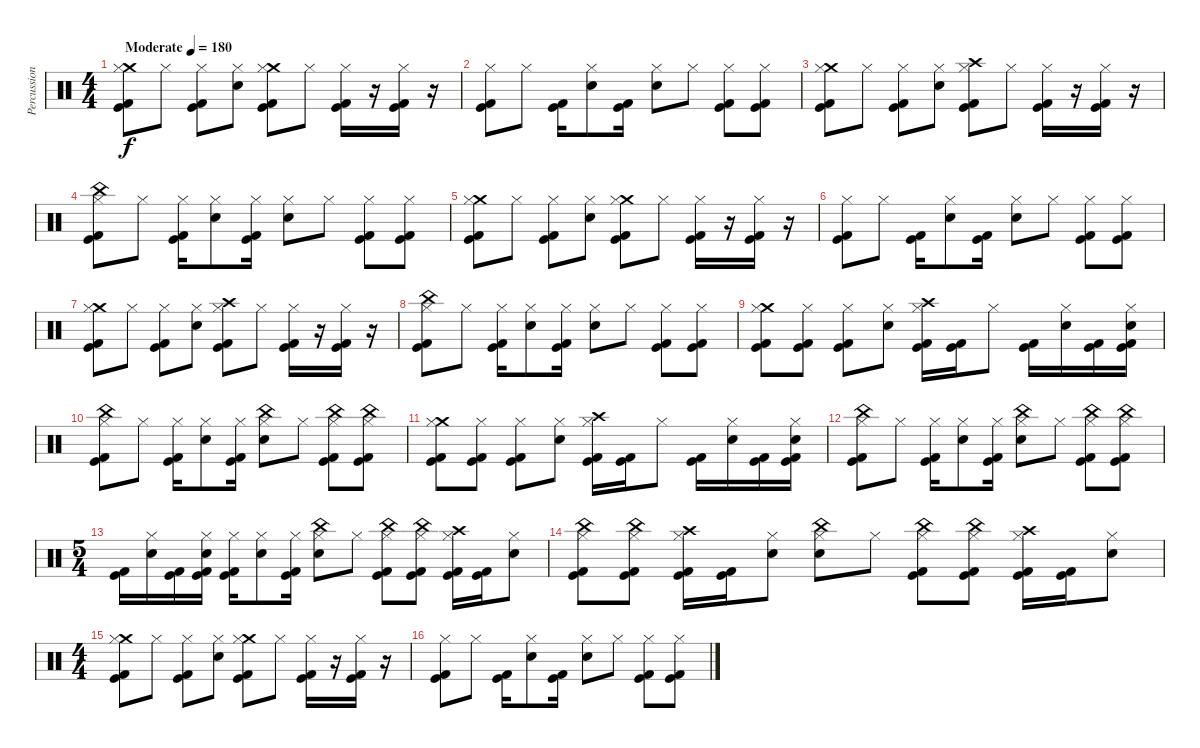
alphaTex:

\track ("Percussion" "Percussion") {instrument percussion}
\staff {score}
\articulation defaults
\ts (4 4)
\tempo (180 "Moderate")
\clef neutral
\ks c
("Crash medium (hit)" "Hi-Hat (closed)" "Kick (hit)" "Kick (hit) 2").8{dy f} "Hi-Hat (closed)".8 ("Hi-Hat (closed)" "Kick (hit)" "Kick (hit) 2").8 ("Hi-Hat (closed)" "Electric Snare (hit)").8 ("Crash medium (hit)" "Hi-Hat (closed)" "Kick (hit)" "Kick (hit) 2").8 "Hi-Hat (closed)".8 ("Hi-Hat (closed)" "Kick (hit)" "Kick (hit) 2").16 r.16 ("Hi-Hat (closed)" "Kick (hit)" "Kick (hit) 2").16 r.16 |
("Hi-Hat (closed)" "Kick (hit)" "Kick (hit) 2").8 "Hi-Hat (closed)".8 ("Kick (hit)" "Kick (hit) 2").16 ("Hi-Hat (closed)" "Electric Snare (hit)").8 ("Kick (hit)" "Kick (hit) 2").16 ("Hi-Hat (closed)" "Electric Snare (hit)").8 "Hi-Hat (closed)".8 ("Hi-Hat (closed)" "Kick (hit)" "Kick (hit) 2").8 ("Hi-Hat (closed)" "Kick (hit)" "Kick (hit) 2").8 |
("Crash medium (hit)" "Hi-Hat (closed)" "Kick (hit)" "Kick (hit) 2").8 "Hi-Hat (closed)".8 ("Hi-Hat (closed)" "Kick (hit)" "Kick (hit) 2").8 ("Hi-Hat (closed)" "Electric Snare (hit)").8 ("Crash high (hit)" "Hi-Hat (closed)" "Kick (hit)" "Kick (hit) 2").8 "Hi-Hat (closed)".8 ("Hi-Hat (closed)" "Kick (hit)" "Kick (hit) 2").16 r.16 ("Hi-Hat (closed)" "Kick (hit)" "Kick (hit) 2").16 r.16 |
("China (hit)" "Hi-Hat (closed)" "Kick (hit)" "Kick (hit) 2").8 "Hi-Hat (closed)".8 ("Hi-Hat (closed)" "Kick (hit)" "Kick (hit) 2").16 ("Hi-Hat (closed)" "Electric Snare (hit)").8 ("Hi-Hat (closed)" "Kick (hit)" "Kick (hit) 2").16 ("Hi-Hat (closed)" "Electric Snare (hit)").8 "Hi-Hat (closed)".8 ("Hi-Hat (closed)" "Kick (hit)" "Kick (hit) 2").8 ("Hi-Hat (closed)" "Kick (hit)" "Kick (hit) 2").8 |
("Crash medium (hit)" "Hi-Hat (closed)" "Kick (hit)" "Kick (hit) 2").8 "Hi-Hat (closed)".8 ("Hi-Hat (closed)" "Kick (hit)" "Kick (hit) 2").8 ("Hi-Hat (closed)" "Electric Snare (hit)").8 ("Crash medium (hit)" "Hi-Hat (closed)" "Kick (hit)" "Kick (hit) 2").8 "Hi-Hat (closed)".8 ("Hi-Hat (closed)" "Kick (hit)" "Kick (hit) 2").16 r.16 ("Hi-Hat (closed)" "Kick (hit)" "Kick (hit) 2").16 r.16 |
("Hi-Hat (closed)" "Kick (hit)" "Kick (hit) 2").8 "Hi-Hat (closed)".8 ("Kick (hit)" "Kick (hit) 2").16 ("Hi-Hat (closed)" "Electric Snare (hit)").8 ("Kick (hit)" "Kick (hit) 2").16 ("Hi-Hat (closed)" "Electric Snare (hit)").8 "Hi-Hat (closed)".8 ("Hi-Hat (closed)" "Kick (hit)" "Kick (hit) 2").8 ("Hi-Hat (closed)" "Kick (hit)" "Kick (hit) 2").8 |
("Crash medium (hit)" "Hi-Hat (closed)" "Kick (hit)" "Kick (hit) 2").8 "Hi-Hat (closed)".8 ("Hi-Hat (closed)" "Kick (hit)" "Kick (hit) 2").8 ("Hi-Hat (closed)" "Electric Snare (hit)").8 ("Crash high (hit)" "Hi-Hat (closed)" "Kick (hit)" "Kick (hit) 2").8 "Hi-Hat (closed)".8 ("Hi-Hat (closed)" "Kick (hit)" "Kick (hit) 2").16 r.16 ("Hi-Hat (closed)" "Kick (hit)" "Kick (hit) 2").16 r.16 |
("China (hit)" "Hi-Hat (closed)" "Kick (hit)" "Kick (hit) 2").8 "Hi-Hat (closed)".8 ("Hi-Hat (closed)" "Kick (hit)" "Kick (hit) 2").16 ("Hi-Hat (closed)" "Electric Snare (hit)").8 ("Hi-Hat (closed)" "Kick (hit)" "Kick (hit) 2").16 ("Hi-Hat (closed)" "Electric Snare (hit)").8 "Hi-Hat (closed)".8 ("Hi-Hat (closed)" "Kick (hit)" "Kick (hit) 2").8 ("Hi-Hat (closed)" "Kick (hit)" "Kick (hit) 2").8 |
("Crash medium (hit)" "Hi-Hat (closed)" "Kick (hit)" "Kick (hit) 2").8 ("Hi-Hat (closed)" "Kick (hit)" "Kick (hit) 2").8 ("Hi-Hat (closed)" "Kick (hit)" "Kick (hit) 2").8 ("Hi-Hat (closed)" "Electric Snare (hit)").8 ("Crash high (hit)" "Hi-Hat (closed)" "Kick (hit)" "Kick (hit) 2").16 ("Kick (hit)" "Kick (hit) 2").16 "Hi-Hat (closed)".8 ("Kick (hit)" "Kick (hit) 2").16 ("Hi-Hat (closed)" "Electric Snare (hit)").16 ("Kick (hit)" "Kick (hit) 2").16 ("Hi-Hat (closed)" "Electric Snare (hit)" "Kick (hit)" "Kick (hit) 2").16 |
("China (hit)" "Hi-Hat (closed)" "Kick (hit)" "Kick (hit) 2").8 "Hi-Hat (closed)".8 ("Hi-Hat (closed)" "Kick (hit)" "Kick (hit) 2").16 ("Hi-Hat (closed)" "Electric Snare (hit)").8 ("Hi-Hat (closed)" "Kick (hit)" "Kick (hit) 2").16 ("China (hit)" "Hi-Hat (closed)" "Electric Snare (hit)").8 "Hi-Hat (closed)".8 ("China (hit)" "Hi-Hat (closed)" "Kick (hit)" "Kick (hit) 2").8 ("China (hit)" "Hi-Hat (closed)" "Kick (hit)" "Kick (hit) 2").8 |
("Crash medium (hit)" "Hi-Hat (closed)" "Kick (hit)" "Kick (hit) 2").8 ("Hi-Hat (closed)" "Kick (hit)" "Kick (hit) 2").8 ("Hi-Hat (closed)" "Kick (hit)" "Kick (hit) 2").8 ("Hi-Hat (closed)" "Electric Snare (hit)").8 ("Crash high (hit)" "Hi-Hat (closed)" "Kick (hit)" "Kick (hit) 2").16 ("Kick (hit)" "Kick (hit) 2").16 "Hi-Hat (closed)".8 ("Kick (hit)" "Kick (hit) 2").16 ("Hi-Hat (closed)" "Electric Snare (hit)").16 ("Kick (hit)" "Kick (hit) 2").16 ("Hi-Hat (closed)" "Electric Snare (hit)" "Kick (hit)" "Kick (hit) 2").16 |
("China (hit)" "Hi-Hat (closed)" "Kick (hit)" "Kick (hit) 2").8 "Hi-Hat (closed)".8 ("Hi-Hat (closed)" "Kick (hit)" "Kick (hit) 2").16 ("Hi-Hat (closed)" "Electric Snare (hit)").8 ("Hi-Hat (closed)" "Kick (hit)" "Kick (hit) 2").16 ("China (hit)" "Hi-Hat (closed)" "Electric Snare (hit)").8 "Hi-Hat (closed)".8 ("China (hit)" "Hi-Hat (closed)" "Kick (hit)" "Kick (hit) 2").8 ("China (hit)" "Hi-Hat (closed)" "Kick (hit)" "Kick (hit) 2").8 |
\ts (5 4)
("Kick (hit)" "Kick (hit) 2").16 ("Hi-Hat (closed)" "Electric Snare (hit)").16 ("Kick (hit)" "Kick (hit) 2").16 ("Hi-Hat (closed)" "Electric Snare (hit)" "Kick (hit)" "Kick (hit) 2").16 ("Hi-Hat (closed)" "Kick (hit)" "Kick (hit) 2").16 ("Hi-Hat (closed)" "Electric Snare (hit)").8 ("Hi-Hat (closed)" "Kick (hit)" "Kick (hit) 2").16 ("China (hit)" "Hi-Hat (closed)" "Electric Snare (hit)").8 "Hi-Hat (closed)".8 ("China (hit)" "Hi-Hat (closed)" "Kick (hit)" "Kick (hit) 2").8 ("China (hit)" "Hi-Hat (closed)" "Kick (hit)" "Kick (hit) 2").8 ("Crash high (hit)" "Hi-Hat (closed)" "Kick (hit)" "Kick (hit) 2").16 ("Kick (hit)" "Kick (hit) 2").16 ("Hi-Hat (closed)" "Electric Snare (hit)").8 |
("China (hit)" "Hi-Hat (closed)" "Kick (hit)" "Kick (hit) 2").8 ("China (hit)" "Hi-Hat (closed)" "Kick (hit)" "Kick (hit) 2").8 ("Crash high (hit)" "Hi-Hat (closed)" "Kick (hit)" "Kick (hit) 2").16 ("Kick (hit)" "Kick (hit) 2").16 ("Hi-Hat (closed)" "Electric Snare (hit)").8 ("China (hit)" "Hi-Hat (closed)" "Electric Snare (hit)").8 "Hi-Hat (closed)".8 ("China (hit)" "Hi-Hat (closed)" "Kick (hit)" "Kick (hit) 2").8 ("China (hit)" "Hi-Hat (closed)" "Kick (hit)" "Kick (hit) 2").8 ("Crash high (hit)" "Hi-Hat (closed)" "Kick (hit)" "Kick (hit) 2").16 ("Kick (hit)" "Kick (hit) 2").16 ("Hi-Hat (closed)" "Electric Snare (hit)").8 |
\ts (4 4)
("Crash medium (hit)" "Hi-Hat (closed)" "Kick (hit)" "Kick (hit) 2").8 "Hi-Hat (closed)".8 ("Hi-Hat (closed)" "Kick (hit)" "Kick (hit) 2").8 ("Hi-Hat (closed)" "Electric Snare (hit)").8 ("Crash medium (hit)" "Hi-Hat (closed)" "Kick (hit)" "Kick (hit) 2").8 "Hi-Hat (closed)".8 ("Hi-Hat (closed)" "Kick (hit)" "Kick (hit) 2").16 r.16 ("Hi-Hat (closed)" "Kick (hit)" "Kick (hit) 2").16 r.16 |
("Hi-Hat (closed)" "Kick (hit)" "Kick (hit) 2").8 "Hi-Hat (closed)".8 ("Kick (hit)" "Kick (hit) 2").16 ("Hi-Hat (closed)" "Electric Snare (hit)").8 ("Kick (hit)" "Kick (hit) 2").16 ("Hi-Hat (closed)" "Electric Snare (hit)").8 "Hi-Hat (closed)".8 ("Hi-Hat (closed)" "Kick (hit)" "Kick (hit) 2").8 ("Hi-Hat (closed)" "Kick (hit)" "Kick (hit) 2").8
